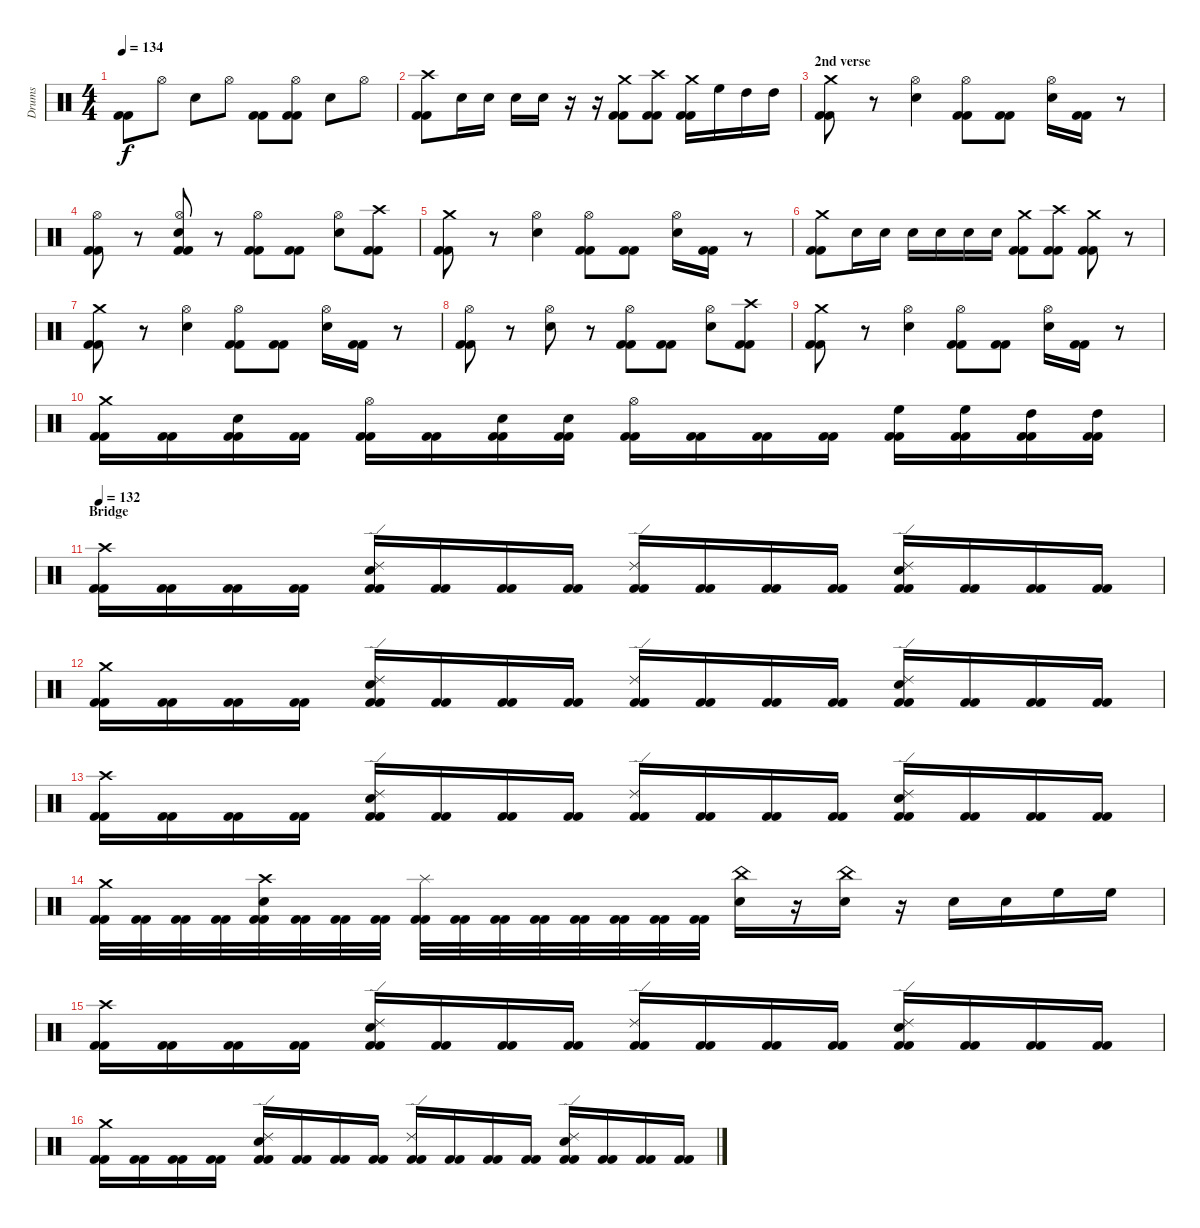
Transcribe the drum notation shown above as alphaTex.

\track ("Drums" "Drums") {instrument percussion}
\staff {score}
\articulation defaults
\ts (4 4)
\tempo 134
\clef neutral
\ks c
("Kick (hit) 2" "Kick (hit) 2").8{dy f} "Hi-Hat (open)".8 "Electric Snare (hit)".8 "Hi-Hat (open)".8 ("Kick (hit) 2" "Kick (hit) 2").8 ("Hi-Hat (open)" "Kick (hit) 2" "Kick (hit) 2").8 "Electric Snare (hit)".8 "Hi-Hat (open)".8 |
("Crash high (hit)" "Kick (hit) 2" "Kick (hit) 2").8 "Electric Snare (hit)".16 "Electric Snare (hit)".16 "Electric Snare (hit)".16 "Electric Snare (hit)".16 r.16 r.16 ("Crash medium (hit)" "Kick (hit) 2" "Kick (hit) 2").8 ("Crash high (hit)" "Kick (hit) 2" "Kick (hit) 2").8 ("Crash medium (hit)" "Kick (hit) 2" "Kick (hit) 2").16 "High Floor Tom (hit)".16 "High Tom (hit)".16 "High Tom (hit)".16 |
\section ("" "2nd verse")
("Crash medium (hit)" "Kick (hit) 2" "Kick (hit) 2").8 r.8 ("Hi-Hat (open)" "Electric Snare (hit)").4 ("Hi-Hat (open)" "Kick (hit) 2" "Kick (hit) 2").8 ("Kick (hit) 2" "Kick (hit) 2").8 ("Hi-Hat (open)" "Electric Snare (hit)").16 ("Kick (hit) 2" "Kick (hit) 2").16 r.8 |
("Hi-Hat (open)" "Kick (hit) 2" "Kick (hit) 2").8 r.8 ("Hi-Hat (open)" "Electric Snare (hit)" "Kick (hit) 2" "Kick (hit) 2").8 r.8 ("Hi-Hat (open)" "Kick (hit) 2" "Kick (hit) 2").8 ("Kick (hit) 2" "Kick (hit) 2").8 ("Hi-Hat (open)" "Electric Snare (hit)").8 ("Crash high (hit)" "Kick (hit) 2" "Kick (hit) 2").8 |
("Crash medium (hit)" "Kick (hit) 2" "Kick (hit) 2").8 r.8 ("Hi-Hat (open)" "Electric Snare (hit)").4 ("Hi-Hat (open)" "Kick (hit) 2" "Kick (hit) 2").8 ("Kick (hit) 2" "Kick (hit) 2").8 ("Hi-Hat (open)" "Electric Snare (hit)").16 ("Kick (hit) 2" "Kick (hit) 2").16 r.8 |
("Crash medium (hit)" "Kick (hit) 2" "Kick (hit) 2").8 "Electric Snare (hit)".16 "Electric Snare (hit)".16 "Electric Snare (hit)".16 "Electric Snare (hit)".16 "Electric Snare (hit)".16 "Electric Snare (hit)".16 ("Crash medium (hit)" "Kick (hit) 2" "Kick (hit) 2").8 ("Crash high (hit)" "Kick (hit) 2" "Kick (hit) 2").8 ("Crash medium (hit)" "Kick (hit) 2" "Kick (hit) 2").8 r.8 |
("Crash medium (hit)" "Kick (hit) 2" "Kick (hit) 2").8 r.8 ("Hi-Hat (open)" "Electric Snare (hit)").4 ("Hi-Hat (open)" "Kick (hit) 2" "Kick (hit) 2").8 ("Kick (hit) 2" "Kick (hit) 2").8 ("Hi-Hat (open)" "Electric Snare (hit)").16 ("Kick (hit) 2" "Kick (hit) 2").16 r.8 |
("Hi-Hat (open)" "Kick (hit) 2" "Kick (hit) 2").8 r.8 ("Hi-Hat (open)" "Electric Snare (hit)").8 r.8 ("Hi-Hat (open)" "Kick (hit) 2" "Kick (hit) 2").8 ("Kick (hit) 2" "Kick (hit) 2").8 ("Hi-Hat (open)" "Electric Snare (hit)").8 ("Crash high (hit)" "Kick (hit) 2" "Kick (hit) 2").8 |
("Crash medium (hit)" "Kick (hit) 2" "Kick (hit) 2").8 r.8 ("Hi-Hat (open)" "Electric Snare (hit)").4 ("Hi-Hat (open)" "Kick (hit) 2" "Kick (hit) 2").8 ("Kick (hit) 2" "Kick (hit) 2").8 ("Hi-Hat (open)" "Electric Snare (hit)").16 ("Kick (hit) 2" "Kick (hit) 2").16 r.8 |
("Crash medium (hit)" "Kick (hit) 2" "Kick (hit) 2").16 ("Kick (hit) 2" "Kick (hit) 2").16 ("Electric Snare (hit)" "Kick (hit) 2" "Kick (hit) 2").16 ("Kick (hit) 2" "Kick (hit) 2").16 ("Hi-Hat (open)" "Kick (hit) 2" "Kick (hit) 2").16 ("Kick (hit) 2" "Kick (hit) 2").16 ("Electric Snare (hit)" "Kick (hit) 2" "Kick (hit) 2").16 ("Electric Snare (hit)" "Kick (hit) 2" "Kick (hit) 2").16 ("Hi-Hat (open)" "Kick (hit) 2" "Kick (hit) 2").16 ("Kick (hit) 2" "Kick (hit) 2").16 ("Kick (hit) 2" "Kick (hit) 2").16 ("Kick (hit) 2" "Kick (hit) 2").16 ("High Floor Tom (hit)" "Kick (hit) 2" "Kick (hit) 2").16 ("High Floor Tom (hit)" "Kick (hit) 2" "Kick (hit) 2").16 ("High Tom (hit)" "Kick (hit) 2" "Kick (hit) 2").16 ("High Tom (hit)" "Kick (hit) 2" "Kick (hit) 2").16 |
\section ("" "Bridge")
\tempo 132
("Crash high (hit)" "Kick (hit) 2" "Kick (hit) 2").16 ("Kick (hit) 2" "Kick (hit) 2").16 ("Kick (hit) 2" "Kick (hit) 2").16 ("Kick (hit) 2" "Kick (hit) 2").16 ("Ride (edge) 2" "Electric Snare (hit)" "Kick (hit) 2" "Kick (hit) 2").16 ("Kick (hit) 2" "Kick (hit) 2").16 ("Kick (hit) 2" "Kick (hit) 2").16 ("Kick (hit) 2" "Kick (hit) 2").16 ("Ride (edge) 2" "Kick (hit) 2" "Kick (hit) 2").16 ("Kick (hit) 2" "Kick (hit) 2").16 ("Kick (hit) 2" "Kick (hit) 2").16 ("Kick (hit) 2" "Kick (hit) 2").16 ("Ride (edge) 2" "Electric Snare (hit)" "Kick (hit) 2" "Kick (hit) 2").16 ("Kick (hit) 2" "Kick (hit) 2").16 ("Kick (hit) 2" "Kick (hit) 2").16 ("Kick (hit) 2" "Kick (hit) 2").16 |
("Crash medium (hit)" "Kick (hit) 2" "Kick (hit) 2").16 ("Kick (hit) 2" "Kick (hit) 2").16 ("Kick (hit) 2" "Kick (hit) 2").16 ("Kick (hit) 2" "Kick (hit) 2").16 ("Ride (edge) 2" "Electric Snare (hit)" "Kick (hit) 2" "Kick (hit) 2").16 ("Kick (hit) 2" "Kick (hit) 2").16 ("Kick (hit) 2" "Kick (hit) 2").16 ("Kick (hit) 2" "Kick (hit) 2").16 ("Ride (edge) 2" "Kick (hit) 2" "Kick (hit) 2").16 ("Kick (hit) 2" "Kick (hit) 2").16 ("Kick (hit) 2" "Kick (hit) 2").16 ("Kick (hit) 2" "Kick (hit) 2").16 ("Ride (edge) 2" "Electric Snare (hit)" "Kick (hit) 2" "Kick (hit) 2").16 ("Kick (hit) 2" "Kick (hit) 2").16 ("Kick (hit) 2" "Kick (hit) 2").16 ("Kick (hit) 2" "Kick (hit) 2").16 |
("Crash high (hit)" "Kick (hit) 2" "Kick (hit) 2").16 ("Kick (hit) 2" "Kick (hit) 2").16 ("Kick (hit) 2" "Kick (hit) 2").16 ("Kick (hit) 2" "Kick (hit) 2").16 ("Ride (edge) 2" "Electric Snare (hit)" "Kick (hit) 2" "Kick (hit) 2").16 ("Kick (hit) 2" "Kick (hit) 2").16 ("Kick (hit) 2" "Kick (hit) 2").16 ("Kick (hit) 2" "Kick (hit) 2").16 ("Ride (edge) 2" "Kick (hit) 2" "Kick (hit) 2").16 ("Kick (hit) 2" "Kick (hit) 2").16 ("Kick (hit) 2" "Kick (hit) 2").16 ("Kick (hit) 2" "Kick (hit) 2").16 ("Ride (edge) 2" "Electric Snare (hit)" "Kick (hit) 2" "Kick (hit) 2").16 ("Kick (hit) 2" "Kick (hit) 2").16 ("Kick (hit) 2" "Kick (hit) 2").16 ("Kick (hit) 2" "Kick (hit) 2").16 |
("Crash medium (hit)" "Kick (hit) 2" "Kick (hit) 2").32 ("Kick (hit) 2" "Kick (hit) 2").32 ("Kick (hit) 2" "Kick (hit) 2").32 ("Kick (hit) 2" "Kick (hit) 2").32 ("Crash high (hit)" "Electric Snare (hit)" "Kick (hit) 2" "Kick (hit) 2").32 ("Kick (hit) 2" "Kick (hit) 2").32 ("Kick (hit) 2" "Kick (hit) 2").32 ("Kick (hit) 2" "Kick (hit) 2").32 ("Splash (hit)" "Kick (hit) 2" "Kick (hit) 2").32 ("Kick (hit) 2" "Kick (hit) 2").32 ("Kick (hit) 2" "Kick (hit) 2").32 ("Kick (hit) 2" "Kick (hit) 2").32 ("Kick (hit) 2" "Kick (hit) 2").32 ("Kick (hit) 2" "Kick (hit) 2").32 ("Kick (hit) 2" "Kick (hit) 2").32 ("Kick (hit) 2" "Kick (hit) 2").32 ("China (hit)" "Electric Snare (hit)").16 r.16 ("China (hit)" "Electric Snare (hit)").16 r.16 "Electric Snare (hit)".16 "Electric Snare (hit)".16 "High Floor Tom (hit)".16 "High Floor Tom (hit)".16 |
("Crash high (hit)" "Kick (hit) 2" "Kick (hit) 2").16 ("Kick (hit) 2" "Kick (hit) 2").16 ("Kick (hit) 2" "Kick (hit) 2").16 ("Kick (hit) 2" "Kick (hit) 2").16 ("Ride (edge) 2" "Electric Snare (hit)" "Kick (hit) 2" "Kick (hit) 2").16 ("Kick (hit) 2" "Kick (hit) 2").16 ("Kick (hit) 2" "Kick (hit) 2").16 ("Kick (hit) 2" "Kick (hit) 2").16 ("Ride (edge) 2" "Kick (hit) 2" "Kick (hit) 2").16 ("Kick (hit) 2" "Kick (hit) 2").16 ("Kick (hit) 2" "Kick (hit) 2").16 ("Kick (hit) 2" "Kick (hit) 2").16 ("Ride (edge) 2" "Electric Snare (hit)" "Kick (hit) 2" "Kick (hit) 2").16 ("Kick (hit) 2" "Kick (hit) 2").16 ("Kick (hit) 2" "Kick (hit) 2").16 ("Kick (hit) 2" "Kick (hit) 2").16 |
("Crash medium (hit)" "Kick (hit) 2" "Kick (hit) 2").16 ("Kick (hit) 2" "Kick (hit) 2").16 ("Kick (hit) 2" "Kick (hit) 2").16 ("Kick (hit) 2" "Kick (hit) 2").16 ("Ride (edge) 2" "Electric Snare (hit)" "Kick (hit) 2" "Kick (hit) 2").16 ("Kick (hit) 2" "Kick (hit) 2").16 ("Kick (hit) 2" "Kick (hit) 2").16 ("Kick (hit) 2" "Kick (hit) 2").16 ("Ride (edge) 2" "Kick (hit) 2" "Kick (hit) 2").16 ("Kick (hit) 2" "Kick (hit) 2").16 ("Kick (hit) 2" "Kick (hit) 2").16 ("Kick (hit) 2" "Kick (hit) 2").16 ("Ride (edge) 2" "Electric Snare (hit)" "Kick (hit) 2" "Kick (hit) 2").16 ("Kick (hit) 2" "Kick (hit) 2").16 ("Kick (hit) 2" "Kick (hit) 2").16 ("Kick (hit) 2" "Kick (hit) 2").16
